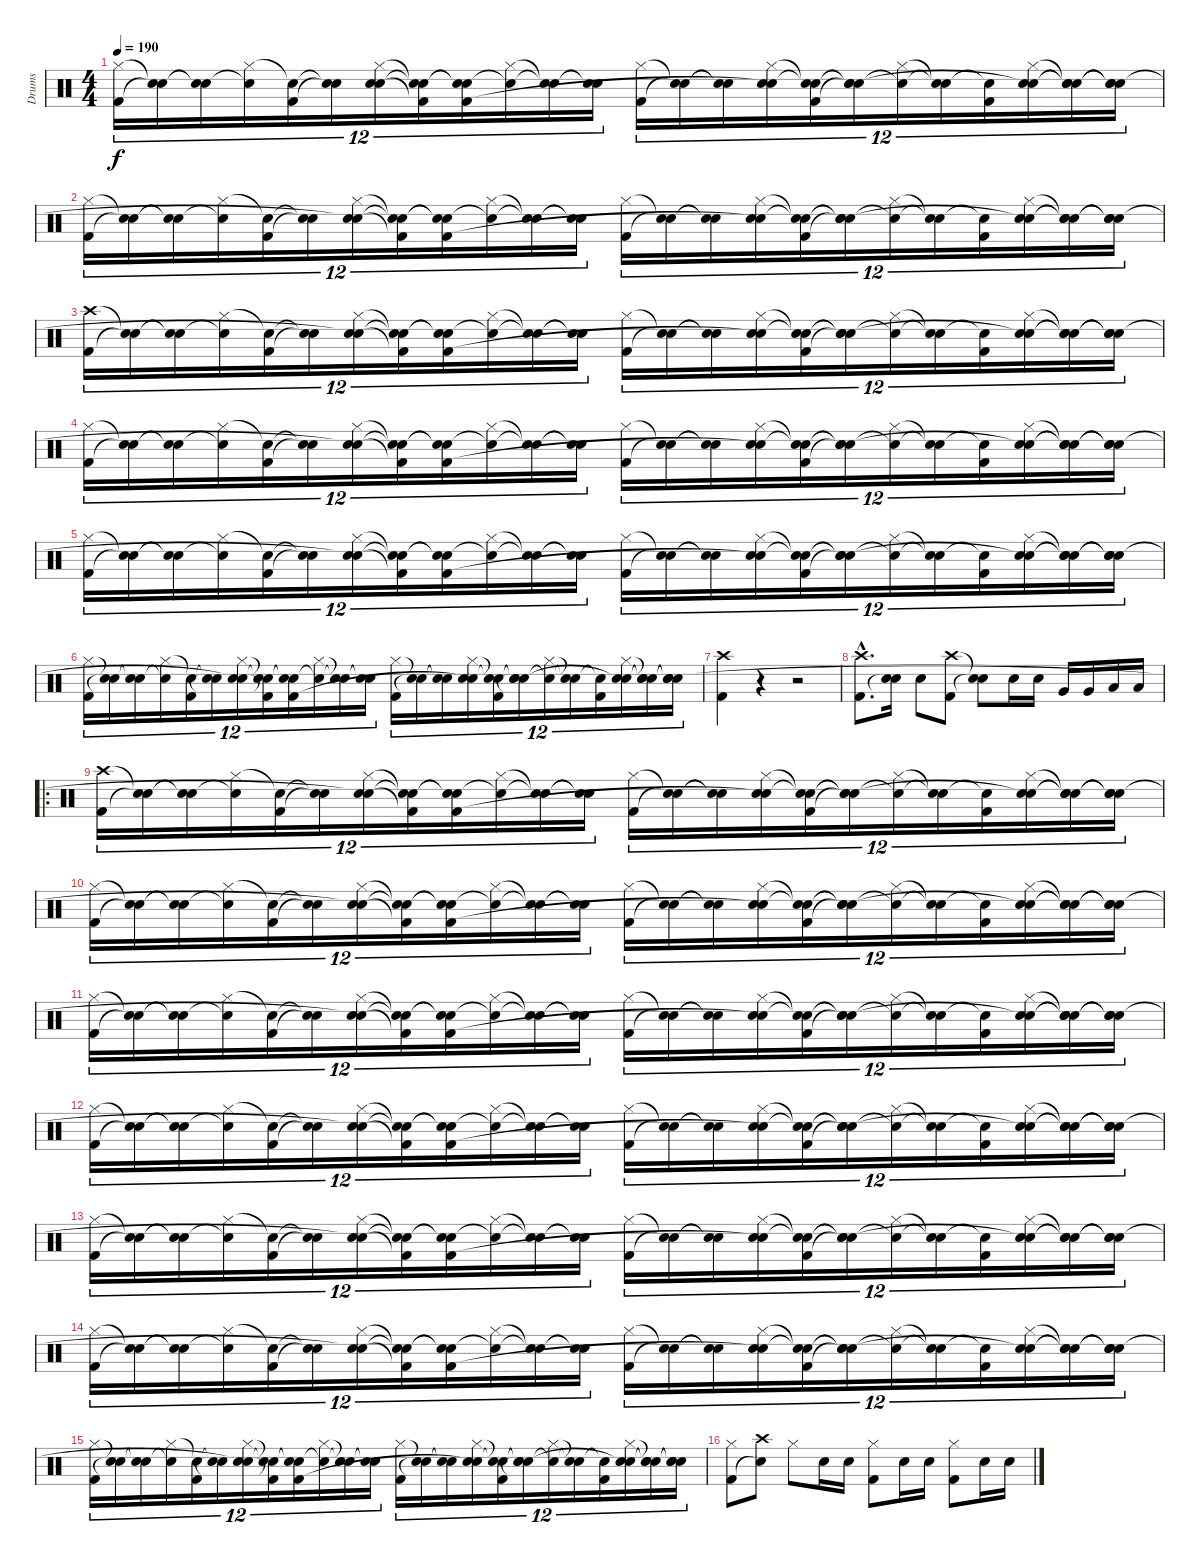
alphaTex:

\track ("Drums" "Drums") {instrument percussion}
\staff {score}
\articulation defaults
\ts (4 4)
\tempo 190
\clef neutral
\ks c
("Hi-Hat (closed)" "Kick (hit) 2").16{tu (12 8) dy f} ("Snare (hit)"{t} "Snare (hit)"{t}).16{tu (12 8)} ("Snare (hit)"{t} "Snare (hit)"{t}).16{tu (12 8)} ("Hi-Hat (closed)" "Snare (hit)"{t}).16{tu (12 8)} ("Snare (hit)"{t} "Kick (hit) 2").16{tu (12 8)} ("Snare (hit)"{t} "Snare (hit)"{t}).16{tu (12 8)} ("Hi-Hat (closed)" "Snare (hit) 2" "Snare (hit)"{t}).16{tu (12 8)} ("Snare (hit)"{t} "Snare (hit)"{t} "Kick (hit) 2"{t}).16{tu (12 8)} ("Snare (hit)"{t} "Snare (hit)"{t} "Kick (hit) 2").16{tu (12 8)} ("Hi-Hat (closed)" "Snare (hit)"{t}).16{tu (12 8)} ("Snare (hit)"{t} "Snare (hit)"{t}).16{tu (12 8)} ("Snare (hit)"{t} "Snare (hit)"{t}).16{tu (12 8)} ("Hi-Hat (closed)" "Kick (hit) 2").16{tu (12 8)} ("Snare (hit)"{t} "Snare (hit)"{t}).16{tu (12 8)} ("Snare (hit)"{t} "Snare (hit)"{t}).16{tu (12 8)} ("Hi-Hat (closed)" "Snare (hit) 2" "Snare (hit)"{t}).16{tu (12 8)} ("Snare (hit)"{t} "Snare (hit)"{t} "Kick (hit) 2").16{tu (12 8)} ("Snare (hit)"{t} "Snare (hit)"{t} "Snare (hit)"{t}).16{tu (12 8)} ("Hi-Hat (closed)" "Snare (hit)"{t}).16{tu (12 8)} ("Snare (hit)"{t} "Snare (hit)"{t}).16{tu (12 8)} ("Snare (hit)"{t} "Kick (hit) 2").16{tu (12 8)} ("Hi-Hat (closed)" "Snare (hit) 2" "Snare (hit)"{t}).16{tu (12 8)} ("Snare (hit)"{t} "Snare (hit)"{t} "Snare (hit)"{t}).16{tu (12 8)} ("Snare (hit)"{t} "Snare (hit)"{t} "Snare (hit)"{t}).16{tu (12 8)} |
("Hi-Hat (closed)" "Kick (hit) 2").16{tu (12 8)} ("Snare (hit)"{t} "Snare (hit)"{t}).16{tu (12 8)} ("Snare (hit)"{t} "Snare (hit)"{t}).16{tu (12 8)} ("Hi-Hat (closed)" "Snare (hit)"{t}).16{tu (12 8)} ("Snare (hit)"{t} "Kick (hit) 2").16{tu (12 8)} ("Snare (hit)"{t} "Snare (hit)"{t}).16{tu (12 8)} ("Hi-Hat (closed)" "Snare (hit) 2" "Snare (hit)"{t}).16{tu (12 8)} ("Snare (hit)"{t} "Snare (hit)"{t} "Kick (hit) 2"{t}).16{tu (12 8)} ("Snare (hit)"{t} "Snare (hit)"{t} "Kick (hit) 2").16{tu (12 8)} ("Hi-Hat (closed)" "Snare (hit)"{t}).16{tu (12 8)} ("Snare (hit)"{t} "Snare (hit)"{t}).16{tu (12 8)} ("Snare (hit)"{t} "Snare (hit)"{t}).16{tu (12 8)} ("Hi-Hat (closed)" "Kick (hit) 2").16{tu (12 8)} ("Snare (hit)"{t} "Snare (hit)"{t}).16{tu (12 8)} ("Snare (hit)"{t} "Snare (hit)"{t}).16{tu (12 8)} ("Hi-Hat (closed)" "Snare (hit) 2" "Snare (hit)"{t}).16{tu (12 8)} ("Snare (hit)"{t} "Snare (hit)"{t} "Kick (hit) 2").16{tu (12 8)} ("Snare (hit)"{t} "Snare (hit)"{t} "Snare (hit)"{t}).16{tu (12 8)} ("Hi-Hat (closed)" "Snare (hit)"{t}).16{tu (12 8)} ("Snare (hit)"{t} "Snare (hit)"{t}).16{tu (12 8)} ("Snare (hit)"{t} "Kick (hit) 2").16{tu (12 8)} ("Hi-Hat (closed)" "Snare (hit) 2" "Snare (hit)"{t}).16{tu (12 8)} ("Snare (hit)"{t} "Snare (hit)"{t} "Snare (hit)"{t}).16{tu (12 8)} ("Snare (hit)"{t} "Snare (hit)"{t} "Snare (hit)"{t}).16{tu (12 8)} |
("Crash high (hit)" "Kick (hit) 2").16{tu (12 8)} ("Snare (hit)"{t} "Snare (hit)"{t}).16{tu (12 8)} ("Snare (hit)"{t} "Snare (hit)"{t}).16{tu (12 8)} ("Hi-Hat (closed)" "Snare (hit)"{t}).16{tu (12 8)} ("Snare (hit)"{t} "Kick (hit) 2").16{tu (12 8)} ("Snare (hit)"{t} "Snare (hit)"{t}).16{tu (12 8)} ("Hi-Hat (closed)" "Snare (hit) 2" "Snare (hit)"{t}).16{tu (12 8)} ("Snare (hit)"{t} "Snare (hit)"{t} "Kick (hit) 2"{t}).16{tu (12 8)} ("Snare (hit)"{t} "Snare (hit)"{t} "Kick (hit) 2").16{tu (12 8)} ("Hi-Hat (closed)" "Snare (hit)"{t}).16{tu (12 8)} ("Snare (hit)"{t} "Snare (hit)"{t}).16{tu (12 8)} ("Snare (hit)"{t} "Snare (hit)"{t}).16{tu (12 8)} ("Hi-Hat (closed)" "Kick (hit) 2").16{tu (12 8)} ("Snare (hit)"{t} "Snare (hit)"{t}).16{tu (12 8)} ("Snare (hit)"{t} "Snare (hit)"{t}).16{tu (12 8)} ("Hi-Hat (closed)" "Snare (hit) 2" "Snare (hit)"{t}).16{tu (12 8)} ("Snare (hit)"{t} "Snare (hit)"{t} "Kick (hit) 2").16{tu (12 8)} ("Snare (hit)"{t} "Snare (hit)"{t} "Snare (hit)"{t}).16{tu (12 8)} ("Hi-Hat (closed)" "Snare (hit)"{t}).16{tu (12 8)} ("Snare (hit)"{t} "Snare (hit)"{t}).16{tu (12 8)} ("Snare (hit)"{t} "Kick (hit) 2").16{tu (12 8)} ("Hi-Hat (closed)" "Snare (hit) 2" "Snare (hit)"{t}).16{tu (12 8)} ("Snare (hit)"{t} "Snare (hit)"{t} "Snare (hit)"{t}).16{tu (12 8)} ("Snare (hit)"{t} "Snare (hit)"{t} "Snare (hit)"{t}).16{tu (12 8)} |
("Hi-Hat (closed)" "Kick (hit) 2").16{tu (12 8)} ("Snare (hit)"{t} "Snare (hit)"{t}).16{tu (12 8)} ("Snare (hit)"{t} "Snare (hit)"{t}).16{tu (12 8)} ("Hi-Hat (closed)" "Snare (hit)"{t}).16{tu (12 8)} ("Snare (hit)"{t} "Kick (hit) 2").16{tu (12 8)} ("Snare (hit)"{t} "Snare (hit)"{t}).16{tu (12 8)} ("Hi-Hat (closed)" "Snare (hit) 2" "Snare (hit)"{t}).16{tu (12 8)} ("Snare (hit)"{t} "Snare (hit)"{t} "Kick (hit) 2"{t}).16{tu (12 8)} ("Snare (hit)"{t} "Snare (hit)"{t} "Kick (hit) 2").16{tu (12 8)} ("Hi-Hat (closed)" "Snare (hit)"{t}).16{tu (12 8)} ("Snare (hit)"{t} "Snare (hit)"{t}).16{tu (12 8)} ("Snare (hit)"{t} "Snare (hit)"{t}).16{tu (12 8)} ("Hi-Hat (closed)" "Kick (hit) 2").16{tu (12 8)} ("Snare (hit)"{t} "Snare (hit)"{t}).16{tu (12 8)} ("Snare (hit)"{t} "Snare (hit)"{t}).16{tu (12 8)} ("Hi-Hat (closed)" "Snare (hit) 2" "Snare (hit)"{t}).16{tu (12 8)} ("Snare (hit)"{t} "Snare (hit)"{t} "Kick (hit) 2").16{tu (12 8)} ("Snare (hit)"{t} "Snare (hit)"{t} "Snare (hit)"{t}).16{tu (12 8)} ("Hi-Hat (closed)" "Snare (hit)"{t}).16{tu (12 8)} ("Snare (hit)"{t} "Snare (hit)"{t}).16{tu (12 8)} ("Snare (hit)"{t} "Kick (hit) 2").16{tu (12 8)} ("Hi-Hat (closed)" "Snare (hit) 2" "Snare (hit)"{t}).16{tu (12 8)} ("Snare (hit)"{t} "Snare (hit)"{t} "Snare (hit)"{t}).16{tu (12 8)} ("Snare (hit)"{t} "Snare (hit)"{t} "Snare (hit)"{t}).16{tu (12 8)} |
("Hi-Hat (closed)" "Kick (hit) 2").16{tu (12 8)} ("Snare (hit)"{t} "Snare (hit)"{t}).16{tu (12 8)} ("Snare (hit)"{t} "Snare (hit)"{t}).16{tu (12 8)} ("Hi-Hat (closed)" "Snare (hit)"{t}).16{tu (12 8)} ("Snare (hit)"{t} "Kick (hit) 2").16{tu (12 8)} ("Snare (hit)"{t} "Snare (hit)"{t}).16{tu (12 8)} ("Hi-Hat (closed)" "Snare (hit) 2" "Snare (hit)"{t}).16{tu (12 8)} ("Snare (hit)"{t} "Snare (hit)"{t} "Kick (hit) 2"{t}).16{tu (12 8)} ("Snare (hit)"{t} "Snare (hit)"{t} "Kick (hit) 2").16{tu (12 8)} ("Hi-Hat (closed)" "Snare (hit)"{t}).16{tu (12 8)} ("Snare (hit)"{t} "Snare (hit)"{t}).16{tu (12 8)} ("Snare (hit)"{t} "Snare (hit)"{t}).16{tu (12 8)} ("Hi-Hat (closed)" "Kick (hit) 2").16{tu (12 8)} ("Snare (hit)"{t} "Snare (hit)"{t}).16{tu (12 8)} ("Snare (hit)"{t} "Snare (hit)"{t}).16{tu (12 8)} ("Hi-Hat (closed)" "Snare (hit) 2" "Snare (hit)"{t}).16{tu (12 8)} ("Snare (hit)"{t} "Snare (hit)"{t} "Kick (hit) 2").16{tu (12 8)} ("Snare (hit)"{t} "Snare (hit)"{t} "Snare (hit)"{t}).16{tu (12 8)} ("Hi-Hat (closed)" "Snare (hit)"{t}).16{tu (12 8)} ("Snare (hit)"{t} "Snare (hit)"{t}).16{tu (12 8)} ("Snare (hit)"{t} "Kick (hit) 2").16{tu (12 8)} ("Hi-Hat (closed)" "Snare (hit) 2" "Snare (hit)"{t}).16{tu (12 8)} ("Snare (hit)"{t} "Snare (hit)"{t} "Snare (hit)"{t}).16{tu (12 8)} ("Snare (hit)"{t} "Snare (hit)"{t} "Snare (hit)"{t}).16{tu (12 8)} |
("Hi-Hat (closed)" "Kick (hit) 2").16{tu (12 8)} ("Snare (hit)"{t} "Snare (hit)"{t}).16{tu (12 8)} ("Snare (hit)"{t} "Snare (hit)"{t}).16{tu (12 8)} ("Hi-Hat (closed)" "Snare (hit)"{t}).16{tu (12 8)} ("Snare (hit)"{t} "Kick (hit) 2").16{tu (12 8)} ("Snare (hit)"{t} "Snare (hit)"{t}).16{tu (12 8)} ("Hi-Hat (closed)" "Snare (hit) 2" "Snare (hit)"{t}).16{tu (12 8)} ("Snare (hit)"{t} "Snare (hit)"{t} "Kick (hit) 2"{t}).16{tu (12 8)} ("Snare (hit)"{t} "Snare (hit)"{t} "Kick (hit) 2").16{tu (12 8)} ("Hi-Hat (closed)" "Snare (hit)"{t}).16{tu (12 8)} ("Snare (hit)"{t} "Snare (hit)"{t}).16{tu (12 8)} ("Snare (hit)"{t} "Snare (hit)"{t}).16{tu (12 8)} ("Hi-Hat (closed)" "Kick (hit) 2").16{tu (12 8)} ("Snare (hit)"{t} "Snare (hit)"{t}).16{tu (12 8)} ("Snare (hit)"{t} "Snare (hit)"{t}).16{tu (12 8)} ("Hi-Hat (closed)" "Snare (hit) 2" "Snare (hit)"{t}).16{tu (12 8)} ("Snare (hit)"{t} "Snare (hit)"{t} "Kick (hit) 2").16{tu (12 8)} ("Snare (hit)"{t} "Snare (hit)"{t} "Snare (hit)"{t}).16{tu (12 8)} ("Hi-Hat (closed)" "Snare (hit)"{t}).16{tu (12 8)} ("Snare (hit)"{t} "Snare (hit)"{t}).16{tu (12 8)} ("Snare (hit)"{t} "Kick (hit) 2").16{tu (12 8)} ("Hi-Hat (closed)" "Snare (hit) 2" "Snare (hit)"{t}).16{tu (12 8)} ("Snare (hit)"{t} "Snare (hit)"{t} "Snare (hit)"{t}).16{tu (12 8)} ("Snare (hit)"{t} "Snare (hit)"{t} "Snare (hit)"{t}).16{tu (12 8)} |
("Crash high (hit)" "Kick (hit) 2").4 r.4 r.2 |
("Crash high (hit)"{hac} "Kick (hit) 2"{hac}).8{d} ("Snare (hit) 2" "Snare (hit)"{t}).16 "Snare (hit) 2".8 ("Crash high (hit)" "Kick (hit) 2").8 ("Snare (hit)"{t} "Snare (hit)"{t}).8 "Snare (hit) 2".16 "Snare (hit) 2".16 "Very Low Tom (hit)".16 "Very Low Tom (hit)".16 "Low Floor Tom (hit)".16 "Low Floor Tom (hit)".16 |
\ro
("Crash high (hit)" "Kick (hit) 2").16{tu (12 8)} ("Snare (hit)"{t} "Snare (hit)"{t}).16{tu (12 8)} ("Snare (hit)"{t} "Snare (hit)"{t}).16{tu (12 8)} ("Hi-Hat (closed)" "Snare (hit)"{t}).16{tu (12 8)} ("Snare (hit)"{t} "Kick (hit) 2").16{tu (12 8)} ("Snare (hit)"{t} "Snare (hit)"{t}).16{tu (12 8)} ("Hi-Hat (closed)" "Snare (hit) 2" "Snare (hit)"{t}).16{tu (12 8)} ("Snare (hit)"{t} "Snare (hit)"{t} "Kick (hit) 2"{t}).16{tu (12 8)} ("Snare (hit)"{t} "Snare (hit)"{t} "Kick (hit) 2").16{tu (12 8)} ("Hi-Hat (closed)" "Snare (hit)"{t}).16{tu (12 8)} ("Snare (hit)"{t} "Snare (hit)"{t}).16{tu (12 8)} ("Snare (hit)"{t} "Snare (hit)"{t}).16{tu (12 8)} ("Hi-Hat (closed)" "Kick (hit) 2").16{tu (12 8)} ("Snare (hit)"{t} "Snare (hit)"{t}).16{tu (12 8)} ("Snare (hit)"{t} "Snare (hit)"{t}).16{tu (12 8)} ("Hi-Hat (closed)" "Snare (hit) 2" "Snare (hit)"{t}).16{tu (12 8)} ("Snare (hit)"{t} "Snare (hit)"{t} "Kick (hit) 2").16{tu (12 8)} ("Snare (hit)"{t} "Snare (hit)"{t} "Snare (hit)"{t}).16{tu (12 8)} ("Hi-Hat (closed)" "Snare (hit)"{t}).16{tu (12 8)} ("Snare (hit)"{t} "Snare (hit)"{t}).16{tu (12 8)} ("Snare (hit)"{t} "Kick (hit) 2").16{tu (12 8)} ("Hi-Hat (closed)" "Snare (hit) 2" "Snare (hit)"{t}).16{tu (12 8)} ("Snare (hit)"{t} "Snare (hit)"{t} "Snare (hit)"{t}).16{tu (12 8)} ("Snare (hit)"{t} "Snare (hit)"{t} "Snare (hit)"{t}).16{tu (12 8)} |
("Hi-Hat (closed)" "Kick (hit) 2").16{tu (12 8)} ("Snare (hit)"{t} "Snare (hit)"{t}).16{tu (12 8)} ("Snare (hit)"{t} "Snare (hit)"{t}).16{tu (12 8)} ("Hi-Hat (closed)" "Snare (hit)"{t}).16{tu (12 8)} ("Snare (hit)"{t} "Kick (hit) 2").16{tu (12 8)} ("Snare (hit)"{t} "Snare (hit)"{t}).16{tu (12 8)} ("Hi-Hat (closed)" "Snare (hit) 2" "Snare (hit)"{t}).16{tu (12 8)} ("Snare (hit)"{t} "Snare (hit)"{t} "Kick (hit) 2"{t}).16{tu (12 8)} ("Snare (hit)"{t} "Snare (hit)"{t} "Kick (hit) 2").16{tu (12 8)} ("Hi-Hat (closed)" "Snare (hit)"{t}).16{tu (12 8)} ("Snare (hit)"{t} "Snare (hit)"{t}).16{tu (12 8)} ("Snare (hit)"{t} "Snare (hit)"{t}).16{tu (12 8)} ("Hi-Hat (closed)" "Kick (hit) 2").16{tu (12 8)} ("Snare (hit)"{t} "Snare (hit)"{t}).16{tu (12 8)} ("Snare (hit)"{t} "Snare (hit)"{t}).16{tu (12 8)} ("Hi-Hat (closed)" "Snare (hit) 2" "Snare (hit)"{t}).16{tu (12 8)} ("Snare (hit)"{t} "Snare (hit)"{t} "Kick (hit) 2").16{tu (12 8)} ("Snare (hit)"{t} "Snare (hit)"{t} "Snare (hit)"{t}).16{tu (12 8)} ("Hi-Hat (closed)" "Snare (hit)"{t}).16{tu (12 8)} ("Snare (hit)"{t} "Snare (hit)"{t}).16{tu (12 8)} ("Snare (hit)"{t} "Kick (hit) 2").16{tu (12 8)} ("Hi-Hat (closed)" "Snare (hit) 2" "Snare (hit)"{t}).16{tu (12 8)} ("Snare (hit)"{t} "Snare (hit)"{t} "Snare (hit)"{t}).16{tu (12 8)} ("Snare (hit)"{t} "Snare (hit)"{t} "Snare (hit)"{t}).16{tu (12 8)} |
("Hi-Hat (closed)" "Kick (hit) 2").16{tu (12 8)} ("Snare (hit)"{t} "Snare (hit)"{t}).16{tu (12 8)} ("Snare (hit)"{t} "Snare (hit)"{t}).16{tu (12 8)} ("Hi-Hat (closed)" "Snare (hit)"{t}).16{tu (12 8)} ("Snare (hit)"{t} "Kick (hit) 2").16{tu (12 8)} ("Snare (hit)"{t} "Snare (hit)"{t}).16{tu (12 8)} ("Hi-Hat (closed)" "Snare (hit) 2" "Snare (hit)"{t}).16{tu (12 8)} ("Snare (hit)"{t} "Snare (hit)"{t} "Kick (hit) 2"{t}).16{tu (12 8)} ("Snare (hit)"{t} "Snare (hit)"{t} "Kick (hit) 2").16{tu (12 8)} ("Hi-Hat (closed)" "Snare (hit)"{t}).16{tu (12 8)} ("Snare (hit)"{t} "Snare (hit)"{t}).16{tu (12 8)} ("Snare (hit)"{t} "Snare (hit)"{t}).16{tu (12 8)} ("Hi-Hat (closed)" "Kick (hit) 2").16{tu (12 8)} ("Snare (hit)"{t} "Snare (hit)"{t}).16{tu (12 8)} ("Snare (hit)"{t} "Snare (hit)"{t}).16{tu (12 8)} ("Hi-Hat (closed)" "Snare (hit) 2" "Snare (hit)"{t}).16{tu (12 8)} ("Snare (hit)"{t} "Snare (hit)"{t} "Kick (hit) 2").16{tu (12 8)} ("Snare (hit)"{t} "Snare (hit)"{t} "Snare (hit)"{t}).16{tu (12 8)} ("Hi-Hat (closed)" "Snare (hit)"{t}).16{tu (12 8)} ("Snare (hit)"{t} "Snare (hit)"{t}).16{tu (12 8)} ("Snare (hit)"{t} "Kick (hit) 2").16{tu (12 8)} ("Hi-Hat (closed)" "Snare (hit) 2" "Snare (hit)"{t}).16{tu (12 8)} ("Snare (hit)"{t} "Snare (hit)"{t} "Snare (hit)"{t}).16{tu (12 8)} ("Snare (hit)"{t} "Snare (hit)"{t} "Snare (hit)"{t}).16{tu (12 8)} |
("Hi-Hat (closed)" "Kick (hit) 2").16{tu (12 8)} ("Snare (hit)"{t} "Snare (hit)"{t}).16{tu (12 8)} ("Snare (hit)"{t} "Snare (hit)"{t}).16{tu (12 8)} ("Hi-Hat (closed)" "Snare (hit)"{t}).16{tu (12 8)} ("Snare (hit)"{t} "Kick (hit) 2").16{tu (12 8)} ("Snare (hit)"{t} "Snare (hit)"{t}).16{tu (12 8)} ("Hi-Hat (closed)" "Snare (hit) 2" "Snare (hit)"{t}).16{tu (12 8)} ("Snare (hit)"{t} "Snare (hit)"{t} "Kick (hit) 2"{t}).16{tu (12 8)} ("Snare (hit)"{t} "Snare (hit)"{t} "Kick (hit) 2").16{tu (12 8)} ("Hi-Hat (closed)" "Snare (hit)"{t}).16{tu (12 8)} ("Snare (hit)"{t} "Snare (hit)"{t}).16{tu (12 8)} ("Snare (hit)"{t} "Snare (hit)"{t}).16{tu (12 8)} ("Hi-Hat (closed)" "Kick (hit) 2").16{tu (12 8)} ("Snare (hit)"{t} "Snare (hit)"{t}).16{tu (12 8)} ("Snare (hit)"{t} "Snare (hit)"{t}).16{tu (12 8)} ("Hi-Hat (closed)" "Snare (hit) 2" "Snare (hit)"{t}).16{tu (12 8)} ("Snare (hit)"{t} "Snare (hit)"{t} "Kick (hit) 2").16{tu (12 8)} ("Snare (hit)"{t} "Snare (hit)"{t} "Snare (hit)"{t}).16{tu (12 8)} ("Hi-Hat (closed)" "Snare (hit)"{t}).16{tu (12 8)} ("Snare (hit)"{t} "Snare (hit)"{t}).16{tu (12 8)} ("Snare (hit)"{t} "Kick (hit) 2").16{tu (12 8)} ("Hi-Hat (closed)" "Snare (hit) 2" "Snare (hit)"{t}).16{tu (12 8)} ("Snare (hit)"{t} "Snare (hit)"{t} "Snare (hit)"{t}).16{tu (12 8)} ("Snare (hit)"{t} "Snare (hit)"{t} "Snare (hit)"{t}).16{tu (12 8)} |
("Hi-Hat (closed)" "Kick (hit) 2").16{tu (12 8)} ("Snare (hit)"{t} "Snare (hit)"{t}).16{tu (12 8)} ("Snare (hit)"{t} "Snare (hit)"{t}).16{tu (12 8)} ("Hi-Hat (closed)" "Snare (hit)"{t}).16{tu (12 8)} ("Snare (hit)"{t} "Kick (hit) 2").16{tu (12 8)} ("Snare (hit)"{t} "Snare (hit)"{t}).16{tu (12 8)} ("Hi-Hat (closed)" "Snare (hit) 2" "Snare (hit)"{t}).16{tu (12 8)} ("Snare (hit)"{t} "Snare (hit)"{t} "Kick (hit) 2"{t}).16{tu (12 8)} ("Snare (hit)"{t} "Snare (hit)"{t} "Kick (hit) 2").16{tu (12 8)} ("Hi-Hat (closed)" "Snare (hit)"{t}).16{tu (12 8)} ("Snare (hit)"{t} "Snare (hit)"{t}).16{tu (12 8)} ("Snare (hit)"{t} "Snare (hit)"{t}).16{tu (12 8)} ("Hi-Hat (closed)" "Kick (hit) 2").16{tu (12 8)} ("Snare (hit)"{t} "Snare (hit)"{t}).16{tu (12 8)} ("Snare (hit)"{t} "Snare (hit)"{t}).16{tu (12 8)} ("Hi-Hat (closed)" "Snare (hit) 2" "Snare (hit)"{t}).16{tu (12 8)} ("Snare (hit)"{t} "Snare (hit)"{t} "Kick (hit) 2").16{tu (12 8)} ("Snare (hit)"{t} "Snare (hit)"{t} "Snare (hit)"{t}).16{tu (12 8)} ("Hi-Hat (closed)" "Snare (hit)"{t}).16{tu (12 8)} ("Snare (hit)"{t} "Snare (hit)"{t}).16{tu (12 8)} ("Snare (hit)"{t} "Kick (hit) 2").16{tu (12 8)} ("Hi-Hat (closed)" "Snare (hit) 2" "Snare (hit)"{t}).16{tu (12 8)} ("Snare (hit)"{t} "Snare (hit)"{t} "Snare (hit)"{t}).16{tu (12 8)} ("Snare (hit)"{t} "Snare (hit)"{t} "Snare (hit)"{t}).16{tu (12 8)} |
("Hi-Hat (closed)" "Kick (hit) 2").16{tu (12 8)} ("Snare (hit)"{t} "Snare (hit)"{t}).16{tu (12 8)} ("Snare (hit)"{t} "Snare (hit)"{t}).16{tu (12 8)} ("Hi-Hat (closed)" "Snare (hit)"{t}).16{tu (12 8)} ("Snare (hit)"{t} "Kick (hit) 2").16{tu (12 8)} ("Snare (hit)"{t} "Snare (hit)"{t}).16{tu (12 8)} ("Hi-Hat (closed)" "Snare (hit) 2" "Snare (hit)"{t}).16{tu (12 8)} ("Snare (hit)"{t} "Snare (hit)"{t} "Kick (hit) 2"{t}).16{tu (12 8)} ("Snare (hit)"{t} "Snare (hit)"{t} "Kick (hit) 2").16{tu (12 8)} ("Hi-Hat (closed)" "Snare (hit)"{t}).16{tu (12 8)} ("Snare (hit)"{t} "Snare (hit)"{t}).16{tu (12 8)} ("Snare (hit)"{t} "Snare (hit)"{t}).16{tu (12 8)} ("Hi-Hat (closed)" "Kick (hit) 2").16{tu (12 8)} ("Snare (hit)"{t} "Snare (hit)"{t}).16{tu (12 8)} ("Snare (hit)"{t} "Snare (hit)"{t}).16{tu (12 8)} ("Hi-Hat (closed)" "Snare (hit) 2" "Snare (hit)"{t}).16{tu (12 8)} ("Snare (hit)"{t} "Snare (hit)"{t} "Kick (hit) 2").16{tu (12 8)} ("Snare (hit)"{t} "Snare (hit)"{t} "Snare (hit)"{t}).16{tu (12 8)} ("Hi-Hat (closed)" "Snare (hit)"{t}).16{tu (12 8)} ("Snare (hit)"{t} "Snare (hit)"{t}).16{tu (12 8)} ("Snare (hit)"{t} "Kick (hit) 2").16{tu (12 8)} ("Hi-Hat (closed)" "Snare (hit) 2" "Snare (hit)"{t}).16{tu (12 8)} ("Snare (hit)"{t} "Snare (hit)"{t} "Snare (hit)"{t}).16{tu (12 8)} ("Snare (hit)"{t} "Snare (hit)"{t} "Snare (hit)"{t}).16{tu (12 8)} |
("Hi-Hat (closed)" "Kick (hit) 2").16{tu (12 8)} ("Snare (hit)"{t} "Snare (hit)"{t}).16{tu (12 8)} ("Snare (hit)"{t} "Snare (hit)"{t}).16{tu (12 8)} ("Hi-Hat (closed)" "Snare (hit)"{t}).16{tu (12 8)} ("Snare (hit)"{t} "Kick (hit) 2").16{tu (12 8)} ("Snare (hit)"{t} "Snare (hit)"{t}).16{tu (12 8)} ("Hi-Hat (closed)" "Snare (hit) 2" "Snare (hit)"{t}).16{tu (12 8)} ("Snare (hit)"{t} "Snare (hit)"{t} "Kick (hit) 2"{t}).16{tu (12 8)} ("Snare (hit)"{t} "Snare (hit)"{t} "Kick (hit) 2").16{tu (12 8)} ("Hi-Hat (closed)" "Snare (hit)"{t}).16{tu (12 8)} ("Snare (hit)"{t} "Snare (hit)"{t}).16{tu (12 8)} ("Snare (hit)"{t} "Snare (hit)"{t}).16{tu (12 8)} ("Hi-Hat (closed)" "Kick (hit) 2").16{tu (12 8)} ("Snare (hit)"{t} "Snare (hit)"{t}).16{tu (12 8)} ("Snare (hit)"{t} "Snare (hit)"{t}).16{tu (12 8)} ("Hi-Hat (closed)" "Snare (hit) 2" "Snare (hit)"{t}).16{tu (12 8)} ("Snare (hit)"{t} "Snare (hit)"{t} "Kick (hit) 2").16{tu (12 8)} ("Snare (hit)"{t} "Snare (hit)"{t} "Snare (hit)"{t}).16{tu (12 8)} ("Hi-Hat (closed)" "Snare (hit)"{t}).16{tu (12 8)} ("Snare (hit)"{t} "Snare (hit)"{t}).16{tu (12 8)} ("Snare (hit)"{t} "Kick (hit) 2").16{tu (12 8)} ("Hi-Hat (closed)" "Snare (hit) 2" "Snare (hit)"{t}).16{tu (12 8)} ("Snare (hit)"{t} "Snare (hit)"{t} "Snare (hit)"{t}).16{tu (12 8)} ("Snare (hit)"{t} "Snare (hit)"{t} "Snare (hit)"{t}).16{tu (12 8)} |
("Hi-Hat (closed)" "Kick (hit) 2").8 ("Crash high (hit)" "Snare (hit)"{t}).8 "Hi-Hat (closed)".8 "Snare (hit) 2".16 "Snare (hit) 2".16 ("Hi-Hat (closed)" "Kick (hit) 2").8 "Snare (hit) 2".16 "Snare (hit) 2".16 ("Hi-Hat (closed)" "Kick (hit) 2").8 "Snare (hit) 2".16 "Snare (hit) 2".16
